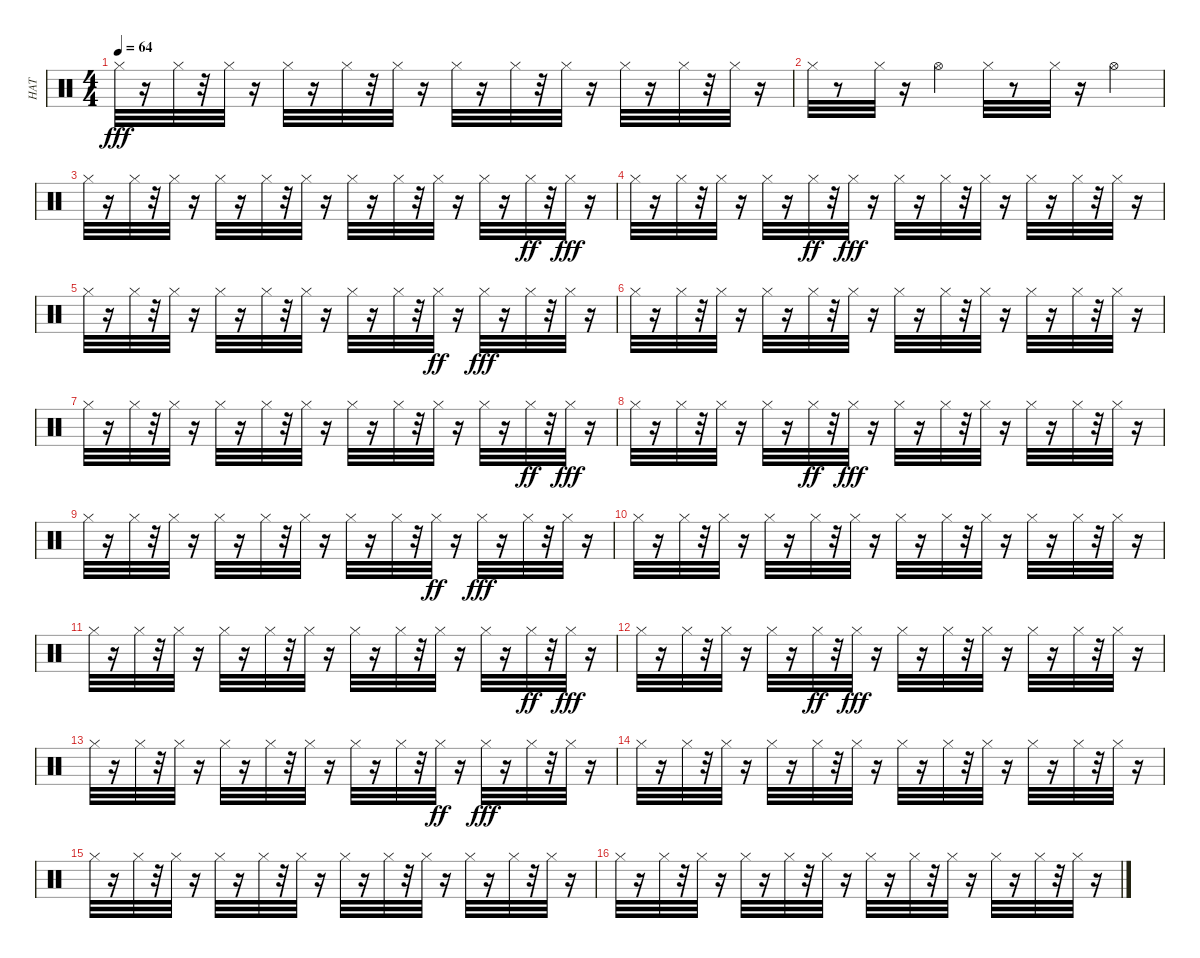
\track ("HAT" "HAT") {instrument percussion}
\staff {score}
\articulation defaults
\ts (4 4)
\tempo 64
\clef neutral
\ks c "Hi-Hat (closed)".32{dy fff}
r.16 "Hi-Hat (closed)".32 r.32 "Hi-Hat (closed)".32 r.16 "Hi-Hat (closed)".32 r.16 "Hi-Hat (closed)".32 r.32 "Hi-Hat (closed)".32 r.16 "Hi-Hat (closed)".32 r.16 "Hi-Hat (closed)".32 r.32 "Hi-Hat (closed)".32 r.16 "Hi-Hat (closed)".32 r.16 "Hi-Hat (closed)".32 r.32 "Hi-Hat (closed)".32 r.16 |
"Hi-Hat (closed)".32 r.8 "Hi-Hat (closed)".32 r.16 "Hi-Hat (open)".4 "Hi-Hat (closed)".32 r.8 "Hi-Hat (closed)".32 r.16 "Hi-Hat (open)".4 |
"Hi-Hat (closed)".32 r.16 "Hi-Hat (closed)".32 r.32 "Hi-Hat (closed)".32 r.16 "Hi-Hat (closed)".32 r.16 "Hi-Hat (closed)".32 r.32 "Hi-Hat (closed)".32 r.16 "Hi-Hat (closed)".32 r.16 "Hi-Hat (closed)".32 r.32 "Hi-Hat (closed)".32 r.16 "Hi-Hat (closed)".32 r.16 "Hi-Hat (closed)".32{dy ff} r.32 "Hi-Hat (closed)".32{dy fff} r.16 |
"Hi-Hat (closed)".32 r.16 "Hi-Hat (closed)".32 r.32 "Hi-Hat (closed)".32 r.16 "Hi-Hat (closed)".32 r.16 "Hi-Hat (closed)".32{dy ff} r.32 "Hi-Hat (closed)".32{dy fff} r.16 "Hi-Hat (closed)".32 r.16 "Hi-Hat (closed)".32 r.32 "Hi-Hat (closed)".32 r.16 "Hi-Hat (closed)".32 r.16 "Hi-Hat (closed)".32 r.32 "Hi-Hat (closed)".32 r.16 |
"Hi-Hat (closed)".32 r.16 "Hi-Hat (closed)".32 r.32 "Hi-Hat (closed)".32 r.16 "Hi-Hat (closed)".32 r.16 "Hi-Hat (closed)".32 r.32 "Hi-Hat (closed)".32 r.16 "Hi-Hat (closed)".32 r.16 "Hi-Hat (closed)".32 r.32 "Hi-Hat (closed)".32{dy ff} r.16 "Hi-Hat (closed)".32{dy fff} r.16 "Hi-Hat (closed)".32 r.32 "Hi-Hat (closed)".32 r.16 |
"Hi-Hat (closed)".32 r.16 "Hi-Hat (closed)".32 r.32 "Hi-Hat (closed)".32 r.16 "Hi-Hat (closed)".32 r.16 "Hi-Hat (closed)".32 r.32 "Hi-Hat (closed)".32 r.16 "Hi-Hat (closed)".32 r.16 "Hi-Hat (closed)".32 r.32 "Hi-Hat (closed)".32 r.16 "Hi-Hat (closed)".32 r.16 "Hi-Hat (closed)".32 r.32 "Hi-Hat (closed)".32 r.16 |
"Hi-Hat (closed)".32 r.16 "Hi-Hat (closed)".32 r.32 "Hi-Hat (closed)".32 r.16 "Hi-Hat (closed)".32 r.16 "Hi-Hat (closed)".32 r.32 "Hi-Hat (closed)".32 r.16 "Hi-Hat (closed)".32 r.16 "Hi-Hat (closed)".32 r.32 "Hi-Hat (closed)".32 r.16 "Hi-Hat (closed)".32 r.16 "Hi-Hat (closed)".32{dy ff} r.32 "Hi-Hat (closed)".32{dy fff} r.16 |
"Hi-Hat (closed)".32 r.16 "Hi-Hat (closed)".32 r.32 "Hi-Hat (closed)".32 r.16 "Hi-Hat (closed)".32 r.16 "Hi-Hat (closed)".32{dy ff} r.32 "Hi-Hat (closed)".32{dy fff} r.16 "Hi-Hat (closed)".32 r.16 "Hi-Hat (closed)".32 r.32 "Hi-Hat (closed)".32 r.16 "Hi-Hat (closed)".32 r.16 "Hi-Hat (closed)".32 r.32 "Hi-Hat (closed)".32 r.16 |
"Hi-Hat (closed)".32 r.16 "Hi-Hat (closed)".32 r.32 "Hi-Hat (closed)".32 r.16 "Hi-Hat (closed)".32 r.16 "Hi-Hat (closed)".32 r.32 "Hi-Hat (closed)".32 r.16 "Hi-Hat (closed)".32 r.16 "Hi-Hat (closed)".32 r.32 "Hi-Hat (closed)".32{dy ff} r.16 "Hi-Hat (closed)".32{dy fff} r.16 "Hi-Hat (closed)".32 r.32 "Hi-Hat (closed)".32 r.16 |
"Hi-Hat (closed)".32 r.16 "Hi-Hat (closed)".32 r.32 "Hi-Hat (closed)".32 r.16 "Hi-Hat (closed)".32 r.16 "Hi-Hat (closed)".32 r.32 "Hi-Hat (closed)".32 r.16 "Hi-Hat (closed)".32 r.16 "Hi-Hat (closed)".32 r.32 "Hi-Hat (closed)".32 r.16 "Hi-Hat (closed)".32 r.16 "Hi-Hat (closed)".32 r.32 "Hi-Hat (closed)".32 r.16 |
"Hi-Hat (closed)".32 r.16 "Hi-Hat (closed)".32 r.32 "Hi-Hat (closed)".32 r.16 "Hi-Hat (closed)".32 r.16 "Hi-Hat (closed)".32 r.32 "Hi-Hat (closed)".32 r.16 "Hi-Hat (closed)".32 r.16 "Hi-Hat (closed)".32 r.32 "Hi-Hat (closed)".32 r.16 "Hi-Hat (closed)".32 r.16 "Hi-Hat (closed)".32{dy ff} r.32 "Hi-Hat (closed)".32{dy fff} r.16 |
"Hi-Hat (closed)".32 r.16 "Hi-Hat (closed)".32 r.32 "Hi-Hat (closed)".32 r.16 "Hi-Hat (closed)".32 r.16 "Hi-Hat (closed)".32{dy ff} r.32 "Hi-Hat (closed)".32{dy fff} r.16 "Hi-Hat (closed)".32 r.16 "Hi-Hat (closed)".32 r.32 "Hi-Hat (closed)".32 r.16 "Hi-Hat (closed)".32 r.16 "Hi-Hat (closed)".32 r.32 "Hi-Hat (closed)".32 r.16 |
"Hi-Hat (closed)".32 r.16 "Hi-Hat (closed)".32 r.32 "Hi-Hat (closed)".32 r.16 "Hi-Hat (closed)".32 r.16 "Hi-Hat (closed)".32 r.32 "Hi-Hat (closed)".32 r.16 "Hi-Hat (closed)".32 r.16 "Hi-Hat (closed)".32 r.32 "Hi-Hat (closed)".32{dy ff} r.16 "Hi-Hat (closed)".32{dy fff} r.16 "Hi-Hat (closed)".32 r.32 "Hi-Hat (closed)".32 r.16 |
"Hi-Hat (closed)".32 r.16 "Hi-Hat (closed)".32 r.32 "Hi-Hat (closed)".32 r.16 "Hi-Hat (closed)".32 r.16 "Hi-Hat (closed)".32 r.32 "Hi-Hat (closed)".32 r.16 "Hi-Hat (closed)".32 r.16 "Hi-Hat (closed)".32 r.32 "Hi-Hat (closed)".32 r.16 "Hi-Hat (closed)".32 r.16 "Hi-Hat (closed)".32 r.32 "Hi-Hat (closed)".32 r.16 |
"Hi-Hat (closed)".32 r.16 "Hi-Hat (closed)".32 r.32 "Hi-Hat (closed)".32 r.16 "Hi-Hat (closed)".32 r.16 "Hi-Hat (closed)".32 r.32 "Hi-Hat (closed)".32 r.16 "Hi-Hat (closed)".32 r.16 "Hi-Hat (closed)".32 r.32 "Hi-Hat (closed)".32 r.16 "Hi-Hat (closed)".32 r.16 "Hi-Hat (closed)".32 r.32 "Hi-Hat (closed)".32 r.16 |
"Hi-Hat (closed)".32 r.16 "Hi-Hat (closed)".32 r.32 "Hi-Hat (closed)".32 r.16 "Hi-Hat (closed)".32 r.16 "Hi-Hat (closed)".32 r.32 "Hi-Hat (closed)".32 r.16 "Hi-Hat (closed)".32 r.16 "Hi-Hat (closed)".32 r.32 "Hi-Hat (closed)".32 r.16 "Hi-Hat (closed)".32 r.16 "Hi-Hat (closed)".32 r.32 "Hi-Hat (closed)".32 r.16
